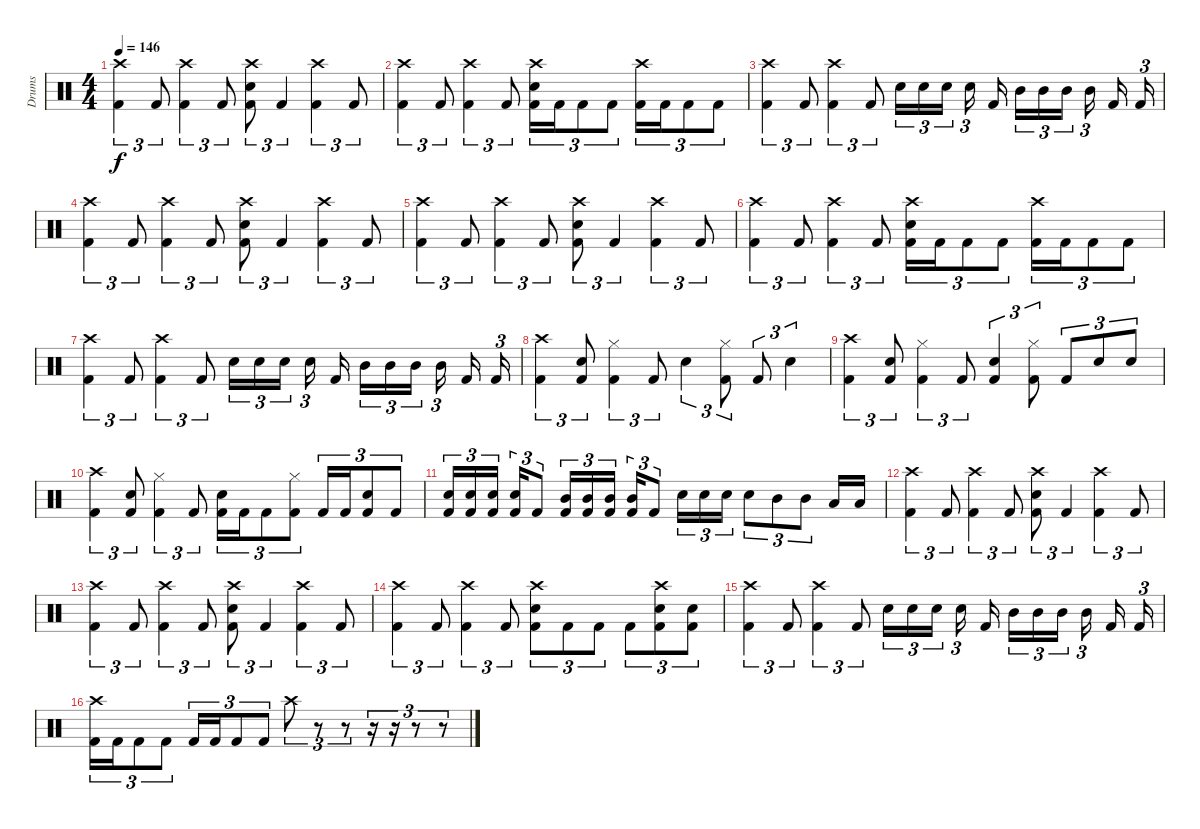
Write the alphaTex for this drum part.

\track ("Drums" "Drums") {instrument percussion}
\staff {score}
\articulation defaults
\ts (4 4)
\tempo 146
\clef neutral
\ks c
("Crash high (hit)" "Kick (hit) 2").4{tu (3 2) dy f} "Kick (hit) 2".8{tu (3 2)} ("Crash high (hit)" "Kick (hit) 2").4{tu (3 2)} "Kick (hit) 2".8{tu (3 2)} ("Crash high (hit)" "Snare (hit) 2" "Kick (hit) 2").8{tu (3 2)} "Kick (hit) 2".4{tu (3 2)} ("Crash high (hit)" "Kick (hit) 2").4{tu (3 2)} "Kick (hit) 2".8{tu (3 2)} |
("Crash high (hit)" "Kick (hit) 2").4{tu (3 2)} "Kick (hit) 2".8{tu (3 2)} ("Crash high (hit)" "Kick (hit) 2").4{tu (3 2)} "Kick (hit) 2".8{tu (3 2)} ("Crash high (hit)" "Snare (hit) 2" "Kick (hit) 2").16{tu (3 2)} "Kick (hit) 2".16{tu (3 2)} "Kick (hit) 2".8{tu (3 2)} "Kick (hit) 2".8{tu (3 2)} ("Crash high (hit)" "Kick (hit) 2").16{tu (3 2)} "Kick (hit) 2".16{tu (3 2)} "Kick (hit) 2".8{tu (3 2)} "Kick (hit) 2".8{tu (3 2)} |
("Crash high (hit)" "Kick (hit) 2").4{tu (3 2)} "Kick (hit) 2".8{tu (3 2)} ("Crash high (hit)" "Kick (hit) 2").4{tu (3 2)} "Kick (hit) 2".8{tu (3 2)} "Snare (hit) 2".16{tu (3 2)} "Snare (hit) 2".16{tu (3 2)} "Snare (hit) 2".16{tu (3 2)} "Snare (hit) 2".16{tu (3 2)} "Kick (hit) 2".16 "Mid Tom (hit)".16{tu (3 2)} "Mid Tom (hit)".16{tu (3 2)} "Mid Tom (hit)".16{tu (3 2)} "Mid Tom (hit)".16{tu (3 2)} "Kick (hit) 2".16 "Kick (hit) 2".16{tu (3 2)} |
("Crash high (hit)" "Kick (hit) 2").4{tu (3 2)} "Kick (hit) 2".8{tu (3 2)} ("Crash high (hit)" "Kick (hit) 2").4{tu (3 2)} "Kick (hit) 2".8{tu (3 2)} ("Crash high (hit)" "Snare (hit) 2" "Kick (hit) 2").8{tu (3 2)} "Kick (hit) 2".4{tu (3 2)} ("Crash high (hit)" "Kick (hit) 2").4{tu (3 2)} "Kick (hit) 2".8{tu (3 2)} |
("Crash high (hit)" "Kick (hit) 2").4{tu (3 2)} "Kick (hit) 2".8{tu (3 2)} ("Crash high (hit)" "Kick (hit) 2").4{tu (3 2)} "Kick (hit) 2".8{tu (3 2)} ("Crash high (hit)" "Snare (hit) 2" "Kick (hit) 2").8{tu (3 2)} "Kick (hit) 2".4{tu (3 2)} ("Crash high (hit)" "Kick (hit) 2").4{tu (3 2)} "Kick (hit) 2".8{tu (3 2)} |
("Crash high (hit)" "Kick (hit) 2").4{tu (3 2)} "Kick (hit) 2".8{tu (3 2)} ("Crash high (hit)" "Kick (hit) 2").4{tu (3 2)} "Kick (hit) 2".8{tu (3 2)} ("Crash high (hit)" "Snare (hit) 2" "Kick (hit) 2").16{tu (3 2)} "Kick (hit) 2".16{tu (3 2)} "Kick (hit) 2".8{tu (3 2)} "Kick (hit) 2".8{tu (3 2)} ("Crash high (hit)" "Kick (hit) 2").16{tu (3 2)} "Kick (hit) 2".16{tu (3 2)} "Kick (hit) 2".8{tu (3 2)} "Kick (hit) 2".8{tu (3 2)} |
("Crash high (hit)" "Kick (hit) 2").4{tu (3 2)} "Kick (hit) 2".8{tu (3 2)} ("Crash high (hit)" "Kick (hit) 2").4{tu (3 2)} "Kick (hit) 2".8{tu (3 2)} "Snare (hit) 2".16{tu (3 2)} "Snare (hit) 2".16{tu (3 2)} "Snare (hit) 2".16{tu (3 2)} "Snare (hit) 2".16{tu (3 2)} "Kick (hit) 2".16 "Mid Tom (hit)".16{tu (3 2)} "Mid Tom (hit)".16{tu (3 2)} "Mid Tom (hit)".16{tu (3 2)} "Mid Tom (hit)".16{tu (3 2)} "Kick (hit) 2".16 "Kick (hit) 2".16{tu (3 2)} |
("Crash high (hit)" "Kick (hit) 2").4{tu (3 2)} ("Snare (hit) 2" "Kick (hit) 2").8{tu (3 2)} ("Hi-Hat (closed)" "Kick (hit) 2").4{tu (3 2)} "Kick (hit) 2".8{tu (3 2)} "Snare (hit) 2".4{tu (3 2)} ("Hi-Hat (closed)" "Kick (hit) 2").8{tu (3 2)} "Kick (hit) 2".8{tu (3 2)} "Snare (hit) 2".4{tu (3 2)} |
("Crash high (hit)" "Kick (hit) 2").4{tu (3 2)} ("Snare (hit) 2" "Kick (hit) 2").8{tu (3 2)} ("Hi-Hat (closed)" "Kick (hit) 2").4{tu (3 2)} "Kick (hit) 2".8{tu (3 2)} ("Snare (hit) 2" "Kick (hit) 2").4{tu (3 2)} ("Hi-Hat (closed)" "Kick (hit) 2").8{tu (3 2)} "Kick (hit) 2".8{tu (3 2)} "Snare (hit) 2".8{tu (3 2)} "Snare (hit) 2".8{tu (3 2)} |
("Crash high (hit)" "Kick (hit) 2").4{tu (3 2)} ("Snare (hit) 2" "Kick (hit) 2").8{tu (3 2)} ("Hi-Hat (closed)" "Kick (hit) 2").4{tu (3 2)} "Kick (hit) 2".8{tu (3 2)} ("Snare (hit) 2" "Kick (hit) 2").16{tu (3 2)} "Kick (hit) 2".16{tu (3 2)} "Kick (hit) 2".8{tu (3 2)} ("Hi-Hat (closed)" "Kick (hit) 2").8{tu (3 2)} "Kick (hit) 2".16{tu (3 2)} "Kick (hit) 2".16{tu (3 2)} ("Snare (hit) 2" "Kick (hit) 2").8{tu (3 2)} "Kick (hit) 2".8{tu (3 2)} |
("Snare (hit) 2" "Kick (hit) 2").16{tu (3 2)} ("Snare (hit) 2" "Kick (hit) 2").16{tu (3 2)} ("Snare (hit) 2" "Kick (hit) 2").16{tu (3 2)} ("Snare (hit) 2" "Kick (hit) 2").16{tu (3 2)} "Kick (hit) 2".8{tu (3 2)} ("Mid Tom (hit)" "Kick (hit) 2").16{tu (3 2)} ("Mid Tom (hit)" "Kick (hit) 2").16{tu (3 2)} ("Mid Tom (hit)" "Kick (hit) 2").16{tu (3 2)} ("Mid Tom (hit)" "Kick (hit) 2").16{tu (3 2)} "Kick (hit) 2".8{tu (3 2)} "Snare (hit) 2".16{tu (3 2)} "Snare (hit) 2".16{tu (3 2)} "Snare (hit) 2".16{tu (3 2)} "Snare (hit) 2".8{tu (3 2)} "Mid Tom (hit)".8{tu (3 2)} "Mid Tom (hit)".8{tu (3 2)} "Low Tom (hit)".16 "Low Tom (hit)".16 |
("Crash high (hit)" "Kick (hit) 2").4{tu (3 2)} "Kick (hit) 2".8{tu (3 2)} ("Crash high (hit)" "Kick (hit) 2").4{tu (3 2)} "Kick (hit) 2".8{tu (3 2)} ("Crash high (hit)" "Snare (hit) 2" "Kick (hit) 2").8{tu (3 2)} "Kick (hit) 2".4{tu (3 2)} ("Crash high (hit)" "Kick (hit) 2").4{tu (3 2)} "Kick (hit) 2".8{tu (3 2)} |
("Crash high (hit)" "Kick (hit) 2").4{tu (3 2)} "Kick (hit) 2".8{tu (3 2)} ("Crash high (hit)" "Kick (hit) 2").4{tu (3 2)} "Kick (hit) 2".8{tu (3 2)} ("Crash high (hit)" "Snare (hit) 2" "Kick (hit) 2").8{tu (3 2)} "Kick (hit) 2".4{tu (3 2)} ("Crash high (hit)" "Kick (hit) 2").4{tu (3 2)} "Kick (hit) 2".8{tu (3 2)} |
("Crash high (hit)" "Kick (hit) 2").4{tu (3 2)} "Kick (hit) 2".8{tu (3 2)} ("Crash high (hit)" "Kick (hit) 2").4{tu (3 2)} "Kick (hit) 2".8{tu (3 2)} ("Crash high (hit)" "Snare (hit) 2" "Kick (hit) 2").8{tu (3 2)} "Kick (hit) 2".8{tu (3 2)} "Kick (hit) 2".8{tu (3 2)} "Kick (hit) 2".8{tu (3 2)} ("Crash high (hit)" "Snare (hit) 2" "Kick (hit) 2").8{tu (3 2)} ("Snare (hit) 2" "Kick (hit) 2").8{tu (3 2)} |
("Crash high (hit)" "Kick (hit) 2").4{tu (3 2)} "Kick (hit) 2".8{tu (3 2)} ("Crash high (hit)" "Kick (hit) 2").4{tu (3 2)} "Kick (hit) 2".8{tu (3 2)} "Snare (hit) 2".16{tu (3 2)} "Snare (hit) 2".16{tu (3 2)} "Snare (hit) 2".16{tu (3 2)} "Snare (hit) 2".16{tu (3 2)} "Kick (hit) 2".16 "Mid Tom (hit)".16{tu (3 2)} "Mid Tom (hit)".16{tu (3 2)} "Mid Tom (hit)".16{tu (3 2)} "Mid Tom (hit)".16{tu (3 2)} "Kick (hit) 2".16 "Kick (hit) 2".16{tu (3 2)} |
("Crash high (hit)" "Kick (hit) 2").16{tu (3 2)} "Kick (hit) 2".16{tu (3 2)} "Kick (hit) 2".8{tu (3 2)} "Kick (hit) 2".8{tu (3 2)} "Kick (hit) 2".16{tu (3 2)} "Kick (hit) 2".16{tu (3 2)} "Kick (hit) 2".8{tu (3 2)} "Kick (hit) 2".8{tu (3 2)} "Crash high (hit)".8{tu (3 2)} r.8{tu (3 2)} r.8{tu (3 2)} r.16{tu (3 2)} r.16{tu (3 2)} r.8{tu (3 2)} r.8{tu (3 2)}
